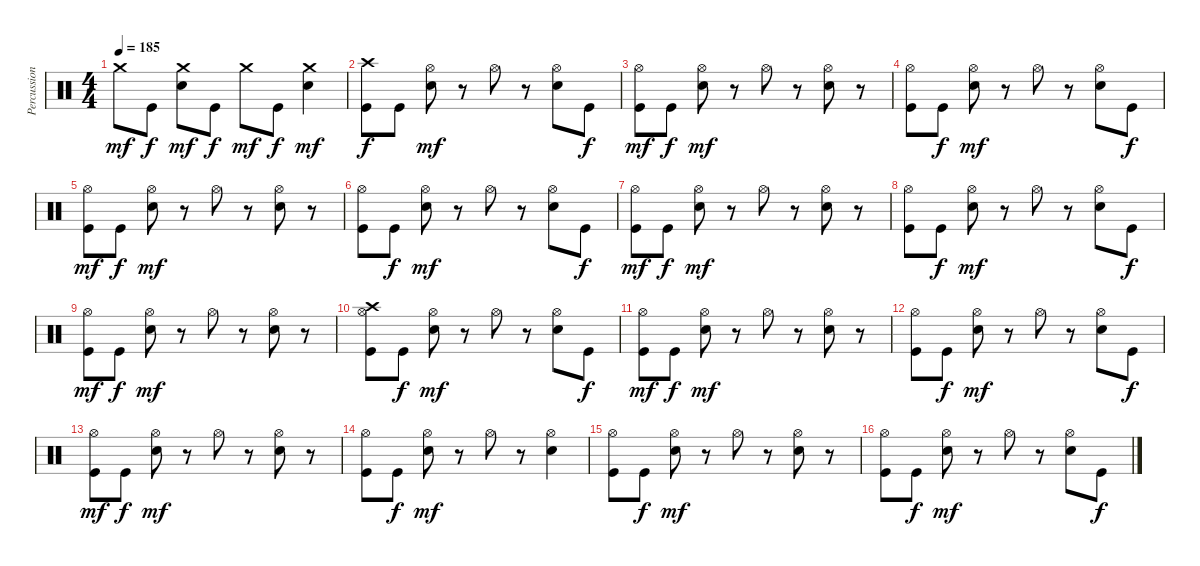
\track ("Percussions" "Percussion") {instrument percussion}
\staff {score}
\articulation defaults
\ts (4 4)
\tempo 185
\clef neutral
\ks c "Crash medium (hit)".8{dy mf} "Kick (hit)".8{dy f}
("Electric Snare (hit)" "Crash medium (hit)").8{dy mf} "Kick (hit)".8{dy f} "Crash medium (hit)".8{dy mf} "Kick (hit)".8{dy f} ("Electric Snare (hit)" "Crash medium (hit)").4{dy mf} |
("Kick (hit)" "Crash high (hit)").8{dy f} "Kick (hit)".8 ("Electric Snare (hit)" "Hi-Hat (open)").8{dy mf} r.8 "Hi-Hat (open)".8 r.8 ("Electric Snare (hit)" "Hi-Hat (open)").8 "Kick (hit)".8{dy f} |
("Kick (hit)" "Hi-Hat (open)").8{dy mf} "Kick (hit)".8{dy f} ("Electric Snare (hit)" "Hi-Hat (open)").8{dy mf} r.8 "Hi-Hat (open)".8 r.8 ("Electric Snare (hit)" "Hi-Hat (open)").8 r.8 |
("Kick (hit)" "Hi-Hat (open)").8 "Kick (hit)".8{dy f} ("Electric Snare (hit)" "Hi-Hat (open)").8{dy mf} r.8 "Hi-Hat (open)".8 r.8 ("Electric Snare (hit)" "Hi-Hat (open)").8 "Kick (hit)".8{dy f} |
("Kick (hit)" "Hi-Hat (open)").8{dy mf} "Kick (hit)".8{dy f} ("Electric Snare (hit)" "Hi-Hat (open)").8{dy mf} r.8 "Hi-Hat (open)".8 r.8 ("Electric Snare (hit)" "Hi-Hat (open)").8 r.8 |
("Kick (hit)" "Hi-Hat (open)").8 "Kick (hit)".8{dy f} ("Electric Snare (hit)" "Hi-Hat (open)").8{dy mf} r.8 "Hi-Hat (open)".8 r.8 ("Electric Snare (hit)" "Hi-Hat (open)").8 "Kick (hit)".8{dy f} |
("Kick (hit)" "Hi-Hat (open)").8{dy mf} "Kick (hit)".8{dy f} ("Electric Snare (hit)" "Hi-Hat (open)").8{dy mf} r.8 "Hi-Hat (open)".8 r.8 ("Electric Snare (hit)" "Hi-Hat (open)").8 r.8 |
("Kick (hit)" "Hi-Hat (open)").8 "Kick (hit)".8{dy f} ("Electric Snare (hit)" "Hi-Hat (open)").8{dy mf} r.8 "Hi-Hat (open)".8 r.8 ("Electric Snare (hit)" "Hi-Hat (open)").8 "Kick (hit)".8{dy f} |
("Kick (hit)" "Hi-Hat (open)").8{dy mf} "Kick (hit)".8{dy f} ("Electric Snare (hit)" "Hi-Hat (open)").8{dy mf} r.8 "Hi-Hat (open)".8 r.8 ("Electric Snare (hit)" "Hi-Hat (open)").8 r.8 |
("Kick (hit)" "Hi-Hat (open)" "Crash high (hit)").8 "Kick (hit)".8{dy f} ("Electric Snare (hit)" "Hi-Hat (open)").8{dy mf} r.8 "Hi-Hat (open)".8 r.8 ("Electric Snare (hit)" "Hi-Hat (open)").8 "Kick (hit)".8{dy f} |
("Kick (hit)" "Hi-Hat (open)").8{dy mf} "Kick (hit)".8{dy f} ("Electric Snare (hit)" "Hi-Hat (open)").8{dy mf} r.8 "Hi-Hat (open)".8 r.8 ("Electric Snare (hit)" "Hi-Hat (open)").8 r.8 |
("Kick (hit)" "Hi-Hat (open)").8 "Kick (hit)".8{dy f} ("Electric Snare (hit)" "Hi-Hat (open)").8{dy mf} r.8 "Hi-Hat (open)".8 r.8 ("Electric Snare (hit)" "Hi-Hat (open)").8 "Kick (hit)".8{dy f} |
("Kick (hit)" "Hi-Hat (open)").8{dy mf} "Kick (hit)".8{dy f} ("Electric Snare (hit)" "Hi-Hat (open)").8{dy mf} r.8 "Hi-Hat (open)".8 r.8 ("Electric Snare (hit)" "Hi-Hat (open)").8 r.8 |
("Kick (hit)" "Hi-Hat (open)").8 "Kick (hit)".8{dy f} ("Electric Snare (hit)" "Hi-Hat (open)").8{dy mf} r.8 "Hi-Hat (open)".8 r.8 ("Electric Snare (hit)" "Hi-Hat (open)").4 |
("Kick (hit)" "Hi-Hat (open)").8 "Kick (hit)".8{dy f} ("Electric Snare (hit)" "Hi-Hat (open)").8{dy mf} r.8 "Hi-Hat (open)".8 r.8 ("Electric Snare (hit)" "Hi-Hat (open)").8 r.8 |
("Kick (hit)" "Hi-Hat (open)").8 "Kick (hit)".8{dy f} ("Electric Snare (hit)" "Hi-Hat (open)").8{dy mf} r.8 "Hi-Hat (open)".8 r.8 ("Electric Snare (hit)" "Hi-Hat (open)").8 "Kick (hit)".8{dy f}
